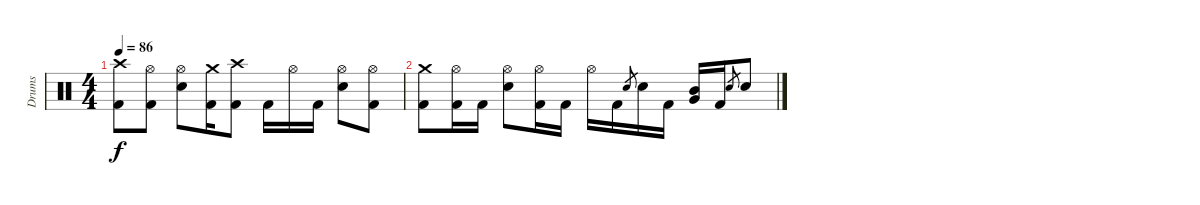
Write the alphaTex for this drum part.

\track ("Drums" "Drums") {instrument percussion}
\staff {score}
\articulation defaults
\ts (4 4)
\tempo 86
\clef neutral
\ks c
("Kick (hit) 2" "Crash high (hit)").8{dy f} ("Hi-Hat (open)" "Kick (hit) 2").8 ("Hi-Hat (open)" "Electric Snare (hit)").8 ("Kick (hit) 2" "Crash medium (hit)").16 ("Kick (hit) 2" "Crash high (hit)").8 "Kick (hit) 2".16 "Hi-Hat (open)".16 "Kick (hit) 2".16 ("Hi-Hat (open)" "Electric Snare (hit)").8 ("Hi-Hat (open)" "Kick (hit) 2").8 |
("Kick (hit) 2" "Crash medium (hit)").8 ("Hi-Hat (open)" "Kick (hit) 2").16 "Kick (hit) 2".16 ("Hi-Hat (open)" "Electric Snare (hit)").8 ("Hi-Hat (open)" "Kick (hit) 2").16 "Kick (hit) 2".16 "Hi-Hat (open)".16 "Kick (hit) 2".16 "Electric Snare (hit)".8{gr} "Electric Snare (hit)".16 "Kick (hit) 2".16 ("Mid Tom (hit)" "Very Low Tom (hit)").16 "Kick (hit) 2".16 "Electric Snare (hit)".8{gr} "Electric Snare (hit)".8
